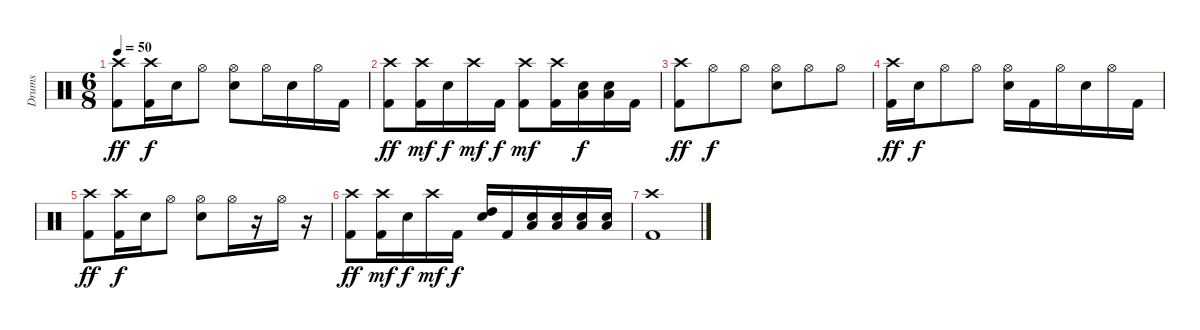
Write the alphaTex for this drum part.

\track ("Drums" "Drums") {instrument percussion}
\staff {score}
\articulation defaults
\ts (6 8)
\tempo 50
\clef neutral
\ks c
("Crash high (hit)" "Kick (hit) 2").8{dy ff} ("Crash high (hit)" "Kick (hit) 2").16{dy f} "Electric Snare (hit)".16 "Hi-Hat (open)".8 ("Hi-Hat (open)" "Electric Snare (hit)").8 "Hi-Hat (open)".16 "Electric Snare (hit)".16 "Hi-Hat (open)".16 "Kick (hit) 2".16 |
("Crash high (hit)" "Kick (hit) 2").8{dy ff} ("Crash high (hit)" "Kick (hit) 2").16{dy mf} "Electric Snare (hit)".16{dy f} "Crash high (hit)".16{dy mf} "Kick (hit) 2".16{dy f} ("Crash high (hit)" "Kick (hit) 2").8{dy mf} ("Crash high (hit)" "Kick (hit) 2").16 ("Low Tom (hit)" "Electric Snare (hit)").16{dy f} ("Low Tom (hit)" "Electric Snare (hit)").16 "Kick (hit) 2".16 |
("Crash high (hit)" "Kick (hit) 2").8{dy ff} "Hi-Hat (open)".8{dy f} "Hi-Hat (open)".8 ("Hi-Hat (open)" "Electric Snare (hit)").8 "Hi-Hat (open)".8 "Hi-Hat (open)".8 |
("Crash high (hit)" "Kick (hit) 2").16{dy ff} "Electric Snare (hit)".16{dy f} "Hi-Hat (open)".8 "Hi-Hat (open)".8 ("Hi-Hat (open)" "Electric Snare (hit)").16 "Kick (hit) 2".16 "Hi-Hat (open)".16 "Electric Snare (hit)".16 "Hi-Hat (open)".16 "Kick (hit) 2".16 |
("Crash high (hit)" "Kick (hit) 2").8{dy ff} ("Crash high (hit)" "Kick (hit) 2").16{dy f} "Electric Snare (hit)".16 "Hi-Hat (open)".8 ("Hi-Hat (open)" "Electric Snare (hit)").8 "Hi-Hat (open)".16 r.16 "Hi-Hat (open)".16 r.16 |
("Crash high (hit)" "Kick (hit) 2").8{dy ff} ("Crash high (hit)" "Kick (hit) 2").16{dy mf} "Electric Snare (hit)".16{dy f} "Crash high (hit)".16{dy mf} "Kick (hit) 2".16{dy f} ("High Tom (hit)" "Electric Snare (hit)").16 "Kick (hit) 2".16 ("Low Tom (hit)" "Electric Snare (hit)").16 ("Low Tom (hit)" "Electric Snare (hit)").16 ("Low Tom (hit)" "Electric Snare (hit)").16 ("Low Tom (hit)" "Electric Snare (hit)").16 |
("Crash high (hit)" "Kick (hit) 2").1
